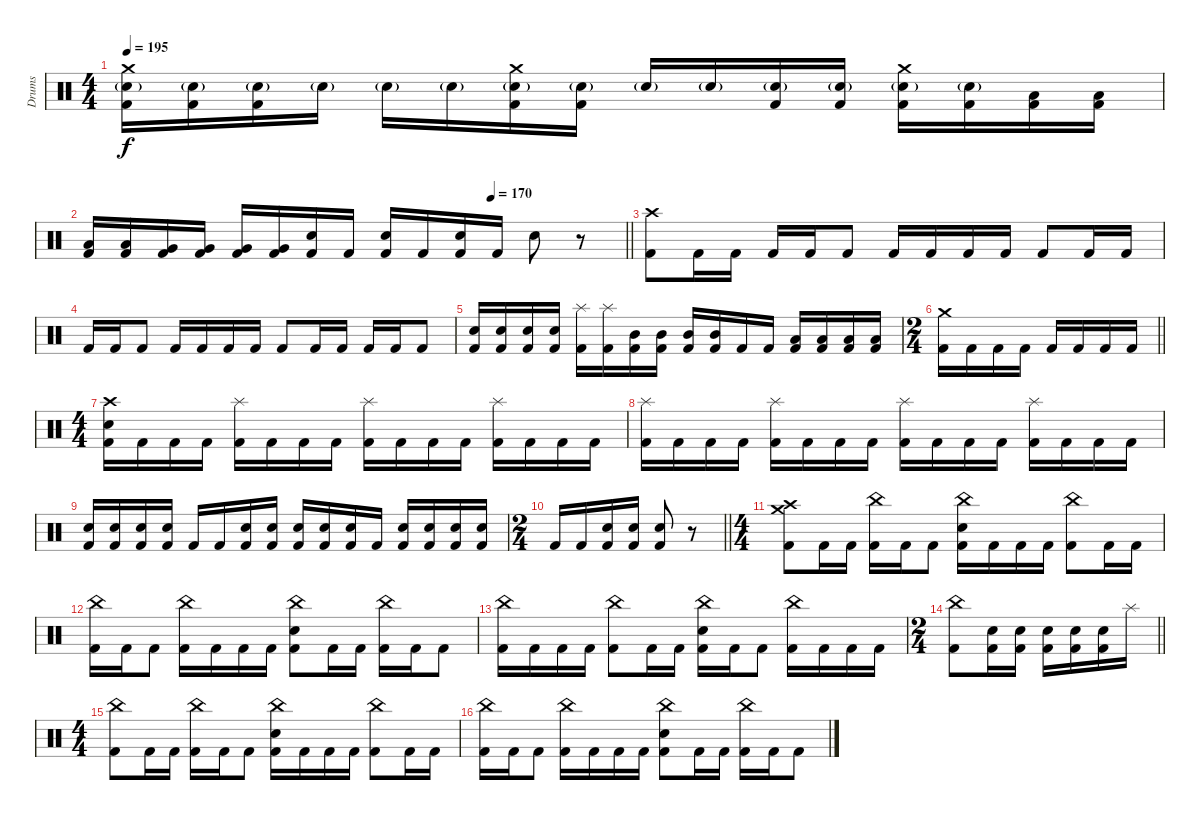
\track ("Drums" "Drums") {instrument percussion}
\staff {score}
\articulation defaults
\ts (4 4)
\tempo 195
\clef neutral
\ks c
("Crash medium (hit)" "Electric Snare (hit)"{g} "Kick (hit) 2").16{dy f} ("Electric Snare (hit)"{g} "Kick (hit) 2").16 ("Electric Snare (hit)"{g} "Kick (hit) 2").16 "Electric Snare (hit)"{g}.16 "Electric Snare (hit)"{g}.16 "Electric Snare (hit)"{g}.16 ("Crash medium (hit)" "Electric Snare (hit)"{g} "Kick (hit) 2").16 ("Electric Snare (hit)"{g} "Kick (hit) 2").16 "Electric Snare (hit)"{g}.16 "Electric Snare (hit)"{g}.16 ("Electric Snare (hit)"{g} "Kick (hit) 2").16 ("Electric Snare (hit)"{g} "Kick (hit) 2").16 ("Crash medium (hit)" "Electric Snare (hit)"{g} "Kick (hit) 2").16 ("Electric Snare (hit)"{g} "Kick (hit) 2").16 ("Low Tom (hit)" "Kick (hit) 2").16 ("Low Tom (hit)" "Kick (hit) 2").16 |
\tempo (170 0.75)
\barLineRight lightlight
("Low Tom (hit)" "Kick (hit) 2").16 ("Low Tom (hit)" "Kick (hit) 2").16 ("Very Low Tom (hit)" "Kick (hit) 2").16 ("Very Low Tom (hit)" "Kick (hit) 2").16 ("Very Low Tom (hit)" "Kick (hit) 2").16 ("Very Low Tom (hit)" "Kick (hit) 2").16 ("Electric Snare (hit)" "Kick (hit) 2").16 "Kick (hit) 2".16 ("Electric Snare (hit)" "Kick (hit) 2").16 "Kick (hit) 2".16 ("Electric Snare (hit)" "Kick (hit) 2").16 "Kick (hit) 2".16 "Electric Snare (hit)".8 r.8 |
("Crash high (hit)" "Kick (hit) 2").8 "Kick (hit) 2".16 "Kick (hit) 2".16 "Kick (hit) 2".16 "Kick (hit) 2".16 "Kick (hit) 2".8 "Kick (hit) 2".16 "Kick (hit) 2".16 "Kick (hit) 2".16 "Kick (hit) 2".16 "Kick (hit) 2".8 "Kick (hit) 2".16 "Kick (hit) 2".16 |
"Kick (hit) 2".16 "Kick (hit) 2".16 "Kick (hit) 2".8 "Kick (hit) 2".16 "Kick (hit) 2".16 "Kick (hit) 2".16 "Kick (hit) 2".16 "Kick (hit) 2".8 "Kick (hit) 2".16 "Kick (hit) 2".16 "Kick (hit) 2".16 "Kick (hit) 2".16 "Kick (hit) 2".8 |
("Electric Snare (hit)" "Kick (hit) 2").16 ("Electric Snare (hit)" "Kick (hit) 2").16 ("Electric Snare (hit)" "Kick (hit) 2").16 ("Electric Snare (hit)" "Kick (hit) 2").16 ("Splash (hit)" "Kick (hit) 2").16 ("Splash (hit)" "Kick (hit) 2").16 ("Mid Tom (hit)" "Kick (hit) 2").16 ("Mid Tom (hit)" "Kick (hit) 2").16 ("Mid Tom (hit)" "Kick (hit) 2").16 ("Mid Tom (hit)" "Kick (hit) 2").16 "Kick (hit) 2".16 "Kick (hit) 2".16 ("Low Tom (hit)" "Kick (hit) 2").16 ("Low Tom (hit)" "Kick (hit) 2").16 ("Low Tom (hit)" "Kick (hit) 2").16 ("Low Tom (hit)" "Kick (hit) 2").16 |
\ts (2 4)
\barLineRight lightlight
("Crash medium (hit)" "Kick (hit) 2").16 "Kick (hit) 2".16 "Kick (hit) 2".16 "Kick (hit) 2".16 "Kick (hit) 2".16 "Kick (hit) 2".16 "Kick (hit) 2".16 "Kick (hit) 2".16 |
\ts (4 4)
("Crash high (hit)" "Electric Snare (hit)" "Kick (hit) 2").16 "Kick (hit) 2".16 "Kick (hit) 2".16 "Kick (hit) 2".16 ("Splash (hit)" "Kick (hit) 2").16 "Kick (hit) 2".16 "Kick (hit) 2".16 "Kick (hit) 2".16 ("Splash (hit)" "Kick (hit) 2").16 "Kick (hit) 2".16 "Kick (hit) 2".16 "Kick (hit) 2".16 ("Splash (hit)" "Kick (hit) 2").16 "Kick (hit) 2".16 "Kick (hit) 2".16 "Kick (hit) 2".16 |
("Splash (hit)" "Kick (hit) 2").16 "Kick (hit) 2".16 "Kick (hit) 2".16 "Kick (hit) 2".16 ("Splash (hit)" "Kick (hit) 2").16 "Kick (hit) 2".16 "Kick (hit) 2".16 "Kick (hit) 2".16 ("Splash (hit)" "Kick (hit) 2").16 "Kick (hit) 2".16 "Kick (hit) 2".16 "Kick (hit) 2".16 ("Splash (hit)" "Kick (hit) 2").16 "Kick (hit) 2".16 "Kick (hit) 2".16 "Kick (hit) 2".16 |
("Electric Snare (hit)" "Kick (hit) 2").16 ("Electric Snare (hit)" "Kick (hit) 2").16 ("Electric Snare (hit)" "Kick (hit) 2").16 ("Electric Snare (hit)" "Kick (hit) 2").16 "Kick (hit) 2".16 "Kick (hit) 2".16 ("Electric Snare (hit)" "Kick (hit) 2").16 ("Electric Snare (hit)" "Kick (hit) 2").16 ("Electric Snare (hit)" "Kick (hit) 2").16 ("Electric Snare (hit)" "Kick (hit) 2").16 ("Electric Snare (hit)" "Kick (hit) 2").16 "Kick (hit) 2".16 ("Electric Snare (hit)" "Kick (hit) 2").16 ("Electric Snare (hit)" "Kick (hit) 2").16 ("Electric Snare (hit)" "Kick (hit) 2").16 ("Electric Snare (hit)" "Kick (hit) 2").16 |
\ts (2 4)
\barLineRight lightlight "Kick (hit) 2".16 "Kick (hit) 2".16
("Electric Snare (hit)" "Kick (hit) 2").16 ("Electric Snare (hit)" "Kick (hit) 2").16 ("Electric Snare (hit)" "Kick (hit) 2").8 r.8 |
\ts (4 4)
("Crash high (hit)" "Crash medium (hit)" "Kick (hit) 2").8 "Kick (hit) 2".16 "Kick (hit) 2".16 ("China (hit)" "Kick (hit) 2").16 "Kick (hit) 2".16 "Kick (hit) 2".8 ("China (hit)" "Electric Snare (hit)" "Kick (hit) 2").16 "Kick (hit) 2".16 "Kick (hit) 2".16 "Kick (hit) 2".16 ("China (hit)" "Kick (hit) 2").8 "Kick (hit) 2".16 "Kick (hit) 2".16 |
("China (hit)" "Kick (hit) 2").16 "Kick (hit) 2".16 "Kick (hit) 2".8 ("China (hit)" "Kick (hit) 2").16 "Kick (hit) 2".16 "Kick (hit) 2".16 "Kick (hit) 2".16 ("China (hit)" "Electric Snare (hit)" "Kick (hit) 2").8 "Kick (hit) 2".16 "Kick (hit) 2".16 ("China (hit)" "Kick (hit) 2").16 "Kick (hit) 2".16 "Kick (hit) 2".8 |
("China (hit)" "Kick (hit) 2").16 "Kick (hit) 2".16 "Kick (hit) 2".16 "Kick (hit) 2".16 ("China (hit)" "Kick (hit) 2").8 "Kick (hit) 2".16 "Kick (hit) 2".16 ("China (hit)" "Electric Snare (hit)" "Kick (hit) 2").16 "Kick (hit) 2".16 "Kick (hit) 2".8 ("China (hit)" "Kick (hit) 2").16 "Kick (hit) 2".16 "Kick (hit) 2".16 "Kick (hit) 2".16 |
\ts (2 4)
\barLineRight lightlight
("China (hit)" "Kick (hit) 2").8 ("Electric Snare (hit)" "Kick (hit) 2").16 ("Electric Snare (hit)" "Kick (hit) 2").16 ("Electric Snare (hit)" "Kick (hit) 2").16 ("Electric Snare (hit)" "Kick (hit) 2").16 ("Electric Snare (hit)" "Kick (hit) 2").16 "Splash (hit)".16 |
\ts (4 4)
("China (hit)" "Kick (hit) 2").8 "Kick (hit) 2".16 "Kick (hit) 2".16 ("China (hit)" "Kick (hit) 2").16 "Kick (hit) 2".16 "Kick (hit) 2".8 ("China (hit)" "Electric Snare (hit)" "Kick (hit) 2").16 "Kick (hit) 2".16 "Kick (hit) 2".16 "Kick (hit) 2".16 ("China (hit)" "Kick (hit) 2").8 "Kick (hit) 2".16 "Kick (hit) 2".16 |
("China (hit)" "Kick (hit) 2").16 "Kick (hit) 2".16 "Kick (hit) 2".8 ("China (hit)" "Kick (hit) 2").16 "Kick (hit) 2".16 "Kick (hit) 2".16 "Kick (hit) 2".16 ("China (hit)" "Electric Snare (hit)" "Kick (hit) 2").8 "Kick (hit) 2".16 "Kick (hit) 2".16 ("China (hit)" "Kick (hit) 2").16 "Kick (hit) 2".16 "Kick (hit) 2".8
